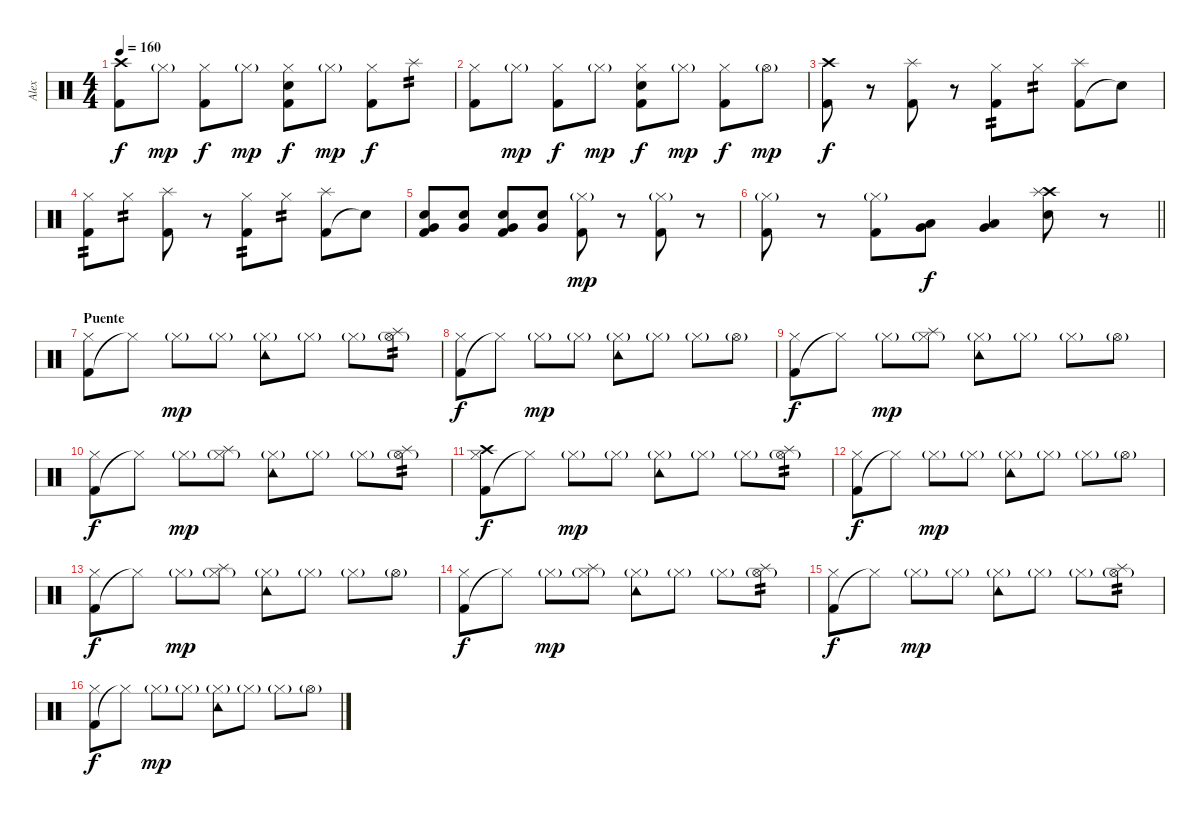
\track ("Alex" "Alex") {instrument percussion}
\staff {score}
\articulation defaults
\ts (4 4)
\tempo 160
\clef neutral
\ks c
("Kick (hit) 2" "Crash high (hit)").8{dy f} "Hi-Hat (closed)"{g}.8{dy mp} ("Kick (hit) 2" "Hi-Hat (closed)").8{dy f} "Hi-Hat (closed)"{g}.8{dy mp} ("Kick (hit) 2" "Hi-Hat (closed)" "Snare (hit) 2").8{dy f} "Hi-Hat (closed)"{g}.8{dy mp} ("Kick (hit) 2" "Hi-Hat (closed)").8{dy f} "Splash (hit)".8{tp 2} |
("Kick (hit) 2" "Hi-Hat (closed)").8 "Hi-Hat (closed)"{g}.8{dy mp} ("Kick (hit) 2" "Hi-Hat (closed)").8{dy f} "Hi-Hat (closed)"{g}.8{dy mp} ("Kick (hit) 2" "Hi-Hat (closed)" "Snare (hit) 2").8{dy f} "Hi-Hat (closed)"{g}.8{dy mp} ("Kick (hit) 2" "Hi-Hat (closed)").8{dy f} "Hi-Hat (open)"{g}.8{dy mp} |
("Kick (hit) 2" "Crash high (hit)").8{dy f} r.8 ("Kick (hit) 2" "Splash (hit)").8 r.8 ("Kick (hit) 2" "Hi-Hat (closed)").8{tp 2} "Hi-Hat (closed)".8{tp 2} ("Kick (hit) 2" "Splash (hit)").8 "Snare (hit)"{t}.8 |
("Kick (hit) 2" "Hi-Hat (closed)").8{tp 2} "Hi-Hat (closed)".8{tp 2} ("Kick (hit) 2" "Splash (hit)").8 r.8 ("Kick (hit) 2" "Hi-Hat (closed)").8{tp 2} "Hi-Hat (closed)".8{tp 2} ("Kick (hit) 2" "Splash (hit)").8 "Snare (hit)"{t}.8 |
("Very Low Tom (hit)" "Kick (hit) 2" "Snare (hit) 2").8 ("Very Low Tom (hit)" "Snare (hit) 2").8 ("Very Low Tom (hit)" "Kick (hit) 2" "Snare (hit) 2").8 ("Very Low Tom (hit)" "Snare (hit) 2").8 ("Kick (hit) 2" "Hi-Hat (closed)"{g}).8{dy mp} r.8 ("Kick (hit) 2" "Hi-Hat (closed)"{g}).8 r.8 |
\barLineRight lightlight
("Kick (hit) 2" "Hi-Hat (closed)"{g}).8 r.8 ("Kick (hit) 2" "Hi-Hat (closed)"{g}).8 ("Very Low Tom (hit)" "Low Tom (hit)").8{dy f} ("Very Low Tom (hit)" "Low Tom (hit)").4 ("Crash high (hit)" "Snare (hit) 2" "Splash (hit)").8 r.8 |
\section ("" "Puente")
("Kick (hit) 2" "Hi-Hat (closed)").8 "Hi-Hat (closed)"{t}.8 "Hi-Hat (closed)"{g}.8{dy mp} "Hi-Hat (closed)"{g}.8 ("Tambourine (hit)" "Hi-Hat (closed)"{g}).8 "Hi-Hat (closed)"{g}.8 "Hi-Hat (closed)"{g}.8 ("Hi-Hat (open)"{g} "Splash (hit)").8{tp 2} |
("Kick (hit) 2" "Hi-Hat (closed)").8{dy f} "Hi-Hat (closed)"{t}.8 "Hi-Hat (closed)"{g}.8{dy mp} "Hi-Hat (closed)"{g}.8 ("Tambourine (hit)" "Hi-Hat (closed)"{g}).8 "Hi-Hat (closed)"{g}.8 "Hi-Hat (closed)"{g}.8 "Hi-Hat (open)"{g}.8 |
("Kick (hit) 2" "Hi-Hat (closed)").8{dy f} "Hi-Hat (closed)"{t}.8 "Hi-Hat (closed)"{g}.8{dy mp} ("Hi-Hat (closed)"{g} "Splash (hit)").8 ("Tambourine (hit)" "Hi-Hat (closed)"{g}).8 "Hi-Hat (closed)"{g}.8 "Hi-Hat (closed)"{g}.8 "Hi-Hat (open)"{g}.8 |
("Kick (hit) 2" "Hi-Hat (closed)").8{dy f} "Hi-Hat (closed)"{t}.8 "Hi-Hat (closed)"{g}.8{dy mp} ("Hi-Hat (closed)"{g} "Splash (hit)").8 ("Tambourine (hit)" "Hi-Hat (closed)"{g}).8 "Hi-Hat (closed)"{g}.8 "Hi-Hat (closed)"{g}.8 ("Hi-Hat (open)"{g} "Splash (hit)").8{tp 2} |
("Kick (hit) 2" "Hi-Hat (closed)" "Crash high (hit)").8{dy f} "Hi-Hat (closed)"{t}.8 "Hi-Hat (closed)"{g}.8{dy mp} "Hi-Hat (closed)"{g}.8 ("Tambourine (hit)" "Hi-Hat (closed)"{g}).8 "Hi-Hat (closed)"{g}.8 "Hi-Hat (closed)"{g}.8 ("Hi-Hat (open)"{g} "Splash (hit)").8{tp 2} |
("Kick (hit) 2" "Hi-Hat (closed)").8{dy f} "Hi-Hat (closed)"{t}.8 "Hi-Hat (closed)"{g}.8{dy mp} "Hi-Hat (closed)"{g}.8 ("Tambourine (hit)" "Hi-Hat (closed)"{g}).8 "Hi-Hat (closed)"{g}.8 "Hi-Hat (closed)"{g}.8 "Hi-Hat (open)"{g}.8 |
("Kick (hit) 2" "Hi-Hat (closed)").8{dy f} "Hi-Hat (closed)"{t}.8 "Hi-Hat (closed)"{g}.8{dy mp} ("Hi-Hat (closed)"{g} "Splash (hit)").8 ("Tambourine (hit)" "Hi-Hat (closed)"{g}).8 "Hi-Hat (closed)"{g}.8 "Hi-Hat (closed)"{g}.8 "Hi-Hat (open)"{g}.8 |
("Kick (hit) 2" "Hi-Hat (closed)").8{dy f} "Hi-Hat (closed)"{t}.8 "Hi-Hat (closed)"{g}.8{dy mp} ("Hi-Hat (closed)"{g} "Splash (hit)").8 ("Tambourine (hit)" "Hi-Hat (closed)"{g}).8 "Hi-Hat (closed)"{g}.8 "Hi-Hat (closed)"{g}.8 ("Hi-Hat (open)"{g} "Splash (hit)").8{tp 2} |
("Kick (hit) 2" "Hi-Hat (closed)").8{dy f} "Hi-Hat (closed)"{t}.8 "Hi-Hat (closed)"{g}.8{dy mp} "Hi-Hat (closed)"{g}.8 ("Tambourine (hit)" "Hi-Hat (closed)"{g}).8 "Hi-Hat (closed)"{g}.8 "Hi-Hat (closed)"{g}.8 ("Hi-Hat (open)"{g} "Splash (hit)").8{tp 2} |
("Kick (hit) 2" "Hi-Hat (closed)").8{dy f} "Hi-Hat (closed)"{t}.8 "Hi-Hat (closed)"{g}.8{dy mp} "Hi-Hat (closed)"{g}.8 ("Tambourine (hit)" "Hi-Hat (closed)"{g}).8 "Hi-Hat (closed)"{g}.8 "Hi-Hat (closed)"{g}.8 "Hi-Hat (open)"{g}.8
